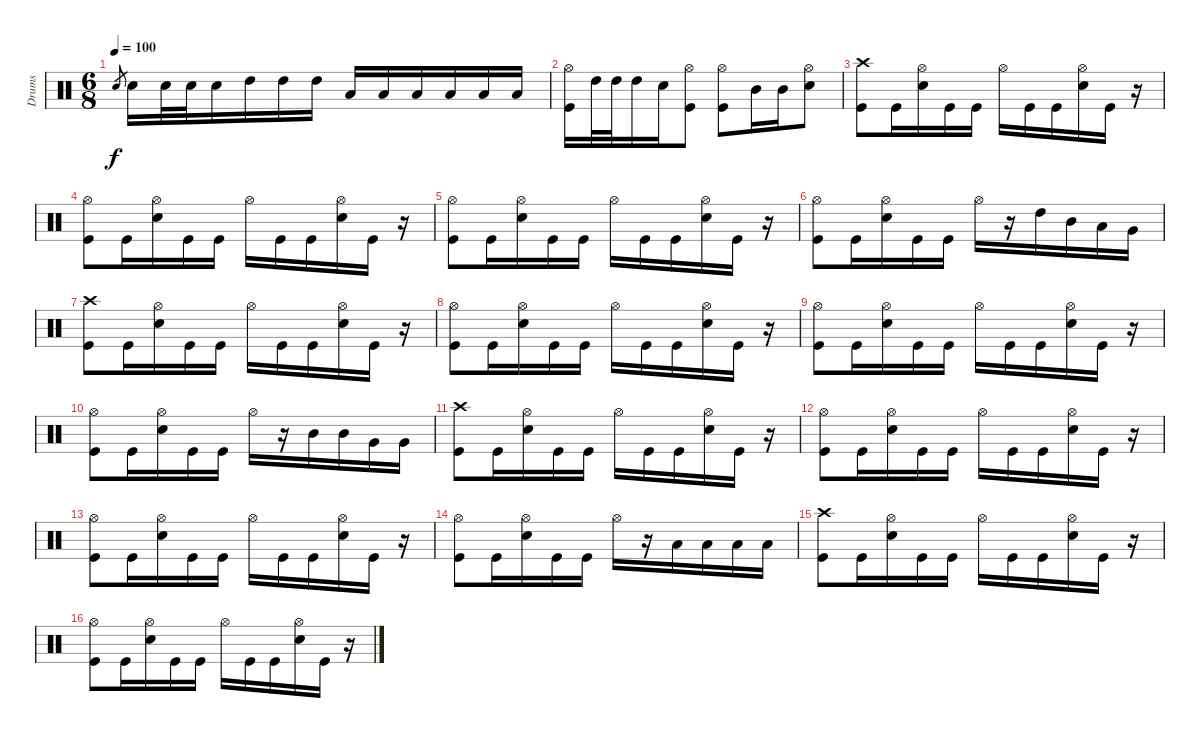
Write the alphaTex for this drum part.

\track ("Drums" "Drums") {instrument percussion}
\staff {score}
\articulation defaults
\ts (6 8)
\tempo 100
\clef neutral
\ks c "Electric Snare (hit)".8{gr dy f} "Electric Snare (hit)".16 "Electric Snare (hit)".32 "Electric Snare (hit)".32 "Electric Snare (hit)".16 "High Tom (hit)".16 "High Tom (hit)".16 "High Tom (hit)".16 "Low Tom (hit)".16 "Low Tom (hit)".16 "Low Tom (hit)".16 "Low Floor Tom (hit)".16 "Low Floor Tom (hit)".16 "Low Floor Tom (hit)".16
|
("Hi-Hat (open)" "Kick (hit)").16 "High Tom (hit)".32 "High Tom (hit)".32 "High Tom (hit)".16 "Electric Snare (hit)".16 ("Hi-Hat (open)" "Kick (hit)").8 ("Hi-Hat (open)" "Kick (hit)").8 "Mid Tom (hit)".16 "Mid Tom (hit)".16 ("Hi-Hat (open)" "Electric Snare (hit)").8 |
("Crash high (hit)" "Kick (hit)").8{volume 12} "Kick (hit)".16 ("Hi-Hat (open)" "Electric Snare (hit)").16 "Kick (hit)".16 "Kick (hit)".16 "Hi-Hat (open)".16 "Kick (hit)".16 "Kick (hit)".16 ("Hi-Hat (open)" "Electric Snare (hit)").16 "Kick (hit)".16 r.16 |
("Hi-Hat (open)" "Kick (hit)").8 "Kick (hit)".16 ("Hi-Hat (open)" "Electric Snare (hit)").16 "Kick (hit)".16 "Kick (hit)".16 "Hi-Hat (open)".16 "Kick (hit)".16 "Kick (hit)".16 ("Hi-Hat (open)" "Electric Snare (hit)").16 "Kick (hit)".16 r.16 |
("Hi-Hat (open)" "Kick (hit)").8 "Kick (hit)".16 ("Hi-Hat (open)" "Electric Snare (hit)").16 "Kick (hit)".16 "Kick (hit)".16 "Hi-Hat (open)".16 "Kick (hit)".16 "Kick (hit)".16 ("Hi-Hat (open)" "Electric Snare (hit)").16 "Kick (hit)".16 r.16 |
("Hi-Hat (open)" "Kick (hit)").8 "Kick (hit)".16 ("Hi-Hat (open)" "Electric Snare (hit)").16 "Kick (hit)".16 "Kick (hit)".16 "Hi-Hat (open)".16 r.16 "High Tom (hit)".16 "Mid Tom (hit)".16 "Low Tom (hit)".16 "Very Low Tom (hit)".16 |
("Crash high (hit)" "Kick (hit)").8 "Kick (hit)".16 ("Hi-Hat (open)" "Electric Snare (hit)").16 "Kick (hit)".16 "Kick (hit)".16 "Hi-Hat (open)".16 "Kick (hit)".16 "Kick (hit)".16 ("Hi-Hat (open)" "Electric Snare (hit)").16 "Kick (hit)".16 r.16 |
("Hi-Hat (open)" "Kick (hit)").8 "Kick (hit)".16 ("Hi-Hat (open)" "Electric Snare (hit)").16 "Kick (hit)".16 "Kick (hit)".16 "Hi-Hat (open)".16 "Kick (hit)".16 "Kick (hit)".16 ("Hi-Hat (open)" "Electric Snare (hit)").16 "Kick (hit)".16 r.16 |
("Hi-Hat (open)" "Kick (hit)").8 "Kick (hit)".16 ("Hi-Hat (open)" "Electric Snare (hit)").16 "Kick (hit)".16 "Kick (hit)".16 "Hi-Hat (open)".16 "Kick (hit)".16 "Kick (hit)".16 ("Hi-Hat (open)" "Electric Snare (hit)").16 "Kick (hit)".16 r.16 |
("Hi-Hat (open)" "Kick (hit)").8 "Kick (hit)".16 ("Hi-Hat (open)" "Electric Snare (hit)").16 "Kick (hit)".16 "Kick (hit)".16 "Hi-Hat (open)".16 r.16 "Mid Tom (hit)".16 "Mid Tom (hit)".16 "Very Low Tom (hit)".16 "Very Low Tom (hit)".16 |
("Crash high (hit)" "Kick (hit)").8 "Kick (hit)".16 ("Hi-Hat (open)" "Electric Snare (hit)").16 "Kick (hit)".16 "Kick (hit)".16 "Hi-Hat (open)".16 "Kick (hit)".16 "Kick (hit)".16 ("Hi-Hat (open)" "Electric Snare (hit)").16 "Kick (hit)".16 r.16 |
("Hi-Hat (open)" "Kick (hit)").8 "Kick (hit)".16 ("Hi-Hat (open)" "Electric Snare (hit)").16 "Kick (hit)".16 "Kick (hit)".16 "Hi-Hat (open)".16 "Kick (hit)".16 "Kick (hit)".16 ("Hi-Hat (open)" "Electric Snare (hit)").16 "Kick (hit)".16 r.16 |
("Hi-Hat (open)" "Kick (hit)").8 "Kick (hit)".16 ("Hi-Hat (open)" "Electric Snare (hit)").16 "Kick (hit)".16 "Kick (hit)".16 "Hi-Hat (open)".16 "Kick (hit)".16 "Kick (hit)".16 ("Hi-Hat (open)" "Electric Snare (hit)").16 "Kick (hit)".16 r.16 |
("Hi-Hat (open)" "Kick (hit)").8 "Kick (hit)".16 ("Hi-Hat (open)" "Electric Snare (hit)").16 "Kick (hit)".16 "Kick (hit)".16 "Hi-Hat (open)".16 r.16 "Low Tom (hit)".16 "Low Tom (hit)".16 "Low Tom (hit)".16 "Low Tom (hit)".16 |
("Crash high (hit)" "Kick (hit)").8 "Kick (hit)".16 ("Hi-Hat (open)" "Electric Snare (hit)").16 "Kick (hit)".16 "Kick (hit)".16 "Hi-Hat (open)".16 "Kick (hit)".16 "Kick (hit)".16 ("Hi-Hat (open)" "Electric Snare (hit)").16 "Kick (hit)".16 r.16 |
("Hi-Hat (open)" "Kick (hit)").8 "Kick (hit)".16 ("Hi-Hat (open)" "Electric Snare (hit)").16 "Kick (hit)".16 "Kick (hit)".16 "Hi-Hat (open)".16 "Kick (hit)".16 "Kick (hit)".16 ("Hi-Hat (open)" "Electric Snare (hit)").16 "Kick (hit)".16 r.16
